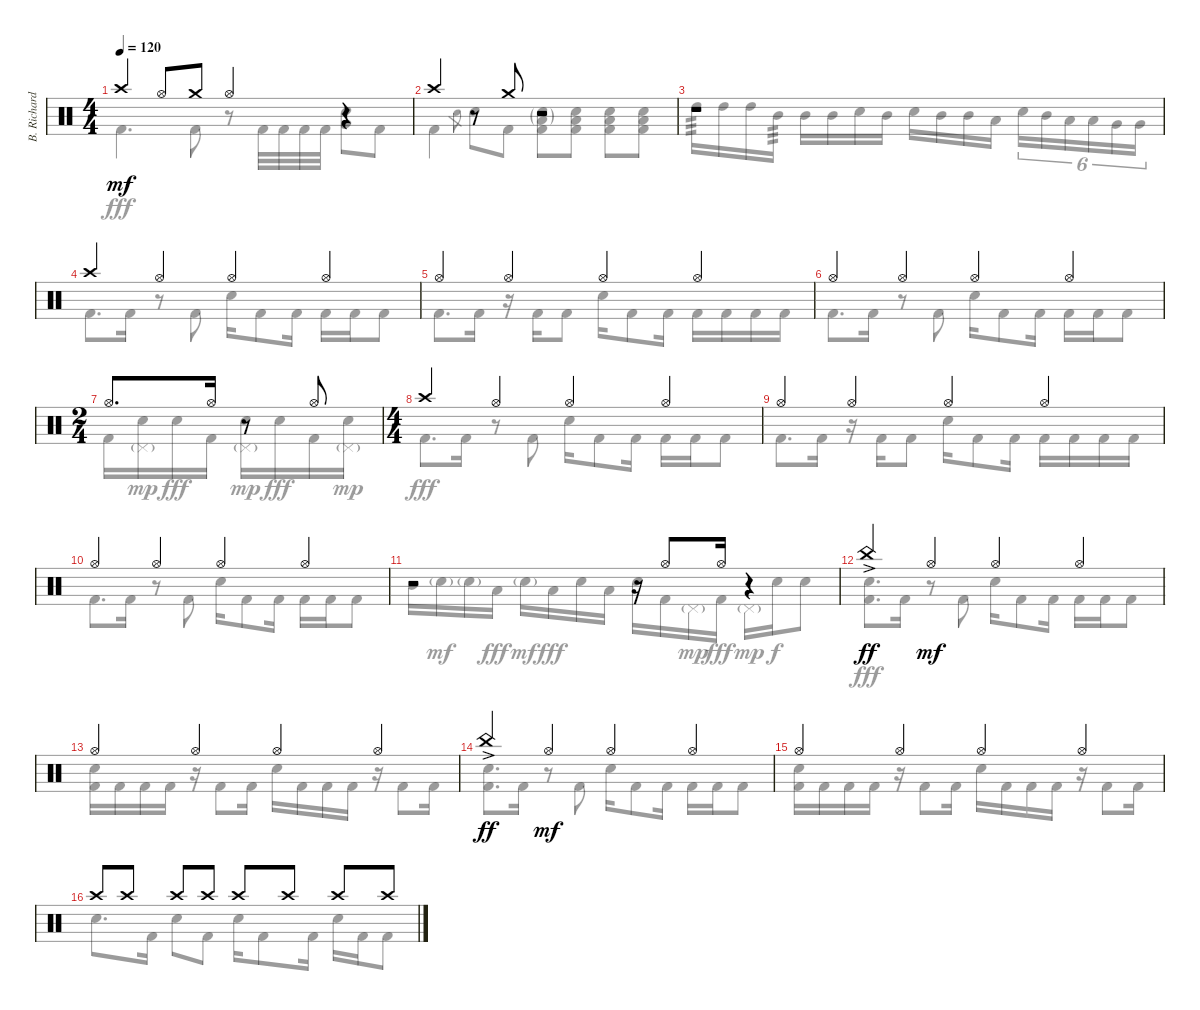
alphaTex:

\track ("B. Richardson Drums" "B. Richard") {instrument percussion}
\staff {score}
\articulation defaults
\voice
\ts (4 4)
\tempo 120
\clef neutral
\ks c "Crash high (hit)".4{dy mf} "Hi-Hat (open)".8 "Crash medium (hit)".8 "Hi-Hat (open)".4
r.4 |
"Crash high (hit)".4 r.8 "Crash medium (hit)".8 r.2 |
r.1 |
"Crash high (hit)".4 "Hi-Hat (open)".4 "Hi-Hat (open)".4 "Hi-Hat (open)".4 |
"Hi-Hat (open)".4 "Hi-Hat (open)".4 "Hi-Hat (open)".4 "Hi-Hat (open)".4 |
"Hi-Hat (open)".4 "Hi-Hat (open)".4 "Hi-Hat (open)".4 "Hi-Hat (open)".4 |
\ts (2 4)
"Hi-Hat (open)".8{d} "Hi-Hat (open)".16 r.8 "Hi-Hat (open)".8 |
\ts (4 4)
"Crash high (hit)".4 "Hi-Hat (open)".4 "Hi-Hat (open)".4 "Hi-Hat (open)".4 |
"Hi-Hat (open)".4 "Hi-Hat (open)".4 "Hi-Hat (open)".4 "Hi-Hat (open)".4 |
"Hi-Hat (open)".4 "Hi-Hat (open)".4 "Hi-Hat (open)".4 "Hi-Hat (open)".4 |
r.2 r.16 "Hi-Hat (open)".8 "Hi-Hat (open)".16 r.4 |
"China (hit)"{ac}.4{dy ff} "Hi-Hat (open)".4{dy mf} "Hi-Hat (open)".4 "Hi-Hat (open)".4 |
"Hi-Hat (open)".4 "Hi-Hat (open)".4 "Hi-Hat (open)".4 "Hi-Hat (open)".4 |
"China (hit)"{ac}.4{dy ff} "Hi-Hat (open)".4{dy mf} "Hi-Hat (open)".4 "Hi-Hat (open)".4 |
"Hi-Hat (open)".4 "Hi-Hat (open)".4 "Hi-Hat (open)".4 "Hi-Hat (open)".4 |
"Crash high (hit)".8 "Crash high (hit)".8 "Crash high (hit)".8 "Crash high (hit)".8 "Crash high (hit)".8 "Crash high (hit)".8 "Crash high (hit)".8 "Crash high (hit)".8
\voice
\clef neutral
\ottava regular
\simile none
\ks c "Kick (hit) 2".4{d dy fff} "Kick (hit) 2".8
r.8 "Kick (hit) 2".32 "Kick (hit) 2".32 "Kick (hit) 2".32 "Kick (hit) 2".32 ("Electric Snare (hit)" "Very Low Tom (hit)").8 "Kick (hit) 2".8 |
"Kick (hit) 2".4 "Electric Snare (hit)".8{gr} "Electric Snare (hit)".8 "Kick (hit) 2".8 ("Electric Snare (hit)"{g} "Low Tom (hit)"{g} "Kick (hit) 2").8 ("Electric Snare (hit)" "Low Tom (hit)" "Kick (hit) 2").8 ("Electric Snare (hit)" "Low Tom (hit)" "Kick (hit) 2").8 ("Electric Snare (hit)" "Low Tom (hit)" "Kick (hit) 2").8 |
"High Tom (hit)".16{tp 3} "High Tom (hit)".16 "High Tom (hit)".16 "Mid Tom (hit)".16{tp 3} "Mid Tom (hit)".16 "Mid Tom (hit)".16 "Electric Snare (hit)".16 "Mid Tom (hit)".16 "Electric Snare (hit)".16 "Mid Tom (hit)".16 "Mid Tom (hit)".16 "Low Tom (hit)".16 "Electric Snare (hit)".16{tu (6 4)} "Mid Tom (hit)".16{tu (6 4)} "Low Tom (hit)".16{tu (6 4)} "Low Tom (hit)".16{tu (6 4)} "Very Low Tom (hit)".16{tu (6 4)} "Very Low Tom (hit)".16{tu (6 4)} |
"Kick (hit) 2".8{d} "Kick (hit) 2".16 r.8 "Kick (hit) 2".8 "Electric Snare (hit)".16 "Kick (hit) 2".8 "Kick (hit) 2".16 "Kick (hit) 2".16 "Kick (hit) 2".16 "Kick (hit) 2".8 |
"Kick (hit) 2".8{d} "Kick (hit) 2".16 r.16 "Kick (hit) 2".16 "Kick (hit) 2".8 "Electric Snare (hit)".16 "Kick (hit) 2".8 "Kick (hit) 2".16 "Kick (hit) 2".16 "Kick (hit) 2".16 "Kick (hit) 2".16 "Kick (hit) 2".16 |
"Kick (hit) 2".8{d} "Kick (hit) 2".16 r.8 "Kick (hit) 2".8 "Electric Snare (hit)".16 "Kick (hit) 2".8 "Kick (hit) 2".16 "Kick (hit) 2".16 "Kick (hit) 2".16 "Kick (hit) 2".8 |
"Kick (hit) 2".16 ("Electric Snare (hit)" "Pedal Hi-Hat (hit)"{g}).16{dy mp} "Electric Snare (hit)".16{dy fff} "Kick (hit) 2".16 ("Electric Snare (hit)" "Pedal Hi-Hat (hit)"{g}).16{dy mp} "Electric Snare (hit)".16{dy fff} "Kick (hit) 2".16 ("Electric Snare (hit)" "Pedal Hi-Hat (hit)"{g}).16{dy mp} |
"Kick (hit) 2".8{d dy fff} "Kick (hit) 2".16 r.8 "Kick (hit) 2".8 "Electric Snare (hit)".16 "Kick (hit) 2".8 "Kick (hit) 2".16 "Kick (hit) 2".16 "Kick (hit) 2".16 "Kick (hit) 2".8 |
"Kick (hit) 2".8{d} "Kick (hit) 2".16 r.16 "Kick (hit) 2".16 "Kick (hit) 2".8 "Electric Snare (hit)".16 "Kick (hit) 2".8 "Kick (hit) 2".16 "Kick (hit) 2".16 "Kick (hit) 2".16 "Kick (hit) 2".16 "Kick (hit) 2".16 |
"Kick (hit) 2".8{d} "Kick (hit) 2".16 r.8 "Kick (hit) 2".8 "Electric Snare (hit)".16 "Kick (hit) 2".8 "Kick (hit) 2".16 "Kick (hit) 2".16 "Kick (hit) 2".16 "Kick (hit) 2".8 |
"Mid Tom (hit)".16 "Electric Snare (hit)"{g}.16{dy mf} "Electric Snare (hit)"{g}.16 "Low Tom (hit)".16{dy fff} "Electric Snare (hit)"{g}.16{dy mf} "Low Tom (hit)".16{dy fff} "Electric Snare (hit)".16 "Low Tom (hit)".16 "Electric Snare (hit)".16 "Kick (hit) 2".16 "Pedal Hi-Hat (hit)"{g}.16{dy mp} "Kick (hit) 2".16{dy fff} "Pedal Hi-Hat (hit)"{g}.16{dy mp} "Electric Snare (hit)".16{dy f} "Electric Snare (hit)".8 |
("Electric Snare (hit)" "Kick (hit) 2").8{d dy fff} "Kick (hit) 2".16 r.8 "Kick (hit) 2".8 "Electric Snare (hit)".16 "Kick (hit) 2".8 "Kick (hit) 2".16 "Kick (hit) 2".16 "Kick (hit) 2".16 "Kick (hit) 2".8 |
("Electric Snare (hit)" "Kick (hit) 2").16 "Kick (hit) 2".16 "Kick (hit) 2".16 "Kick (hit) 2".16 r.16 "Kick (hit) 2".8 "Kick (hit) 2".16 "Electric Snare (hit)".16 "Kick (hit) 2".16 "Kick (hit) 2".16 "Kick (hit) 2".16 r.16 "Kick (hit) 2".8 "Kick (hit) 2".16 |
("Electric Snare (hit)" "Kick (hit) 2").8{d} "Kick (hit) 2".16 r.8 "Kick (hit) 2".8 "Electric Snare (hit)".16 "Kick (hit) 2".8 "Kick (hit) 2".16 "Kick (hit) 2".16 "Kick (hit) 2".16 "Kick (hit) 2".8 |
("Electric Snare (hit)" "Kick (hit) 2").16 "Kick (hit) 2".16 "Kick (hit) 2".16 "Kick (hit) 2".16 r.16 "Kick (hit) 2".8 "Kick (hit) 2".16 "Electric Snare (hit)".16 "Kick (hit) 2".16 "Kick (hit) 2".16 "Kick (hit) 2".16 r.16 "Kick (hit) 2".8 "Kick (hit) 2".16 |
"Electric Snare (hit)".8{d} "Kick (hit) 2".16 "Electric Snare (hit)".8 "Kick (hit) 2".8 "Electric Snare (hit)".16 "Kick (hit) 2".8 "Kick (hit) 2".16 "Electric Snare (hit)".16 "Kick (hit) 2".16 "Kick (hit) 2".8
